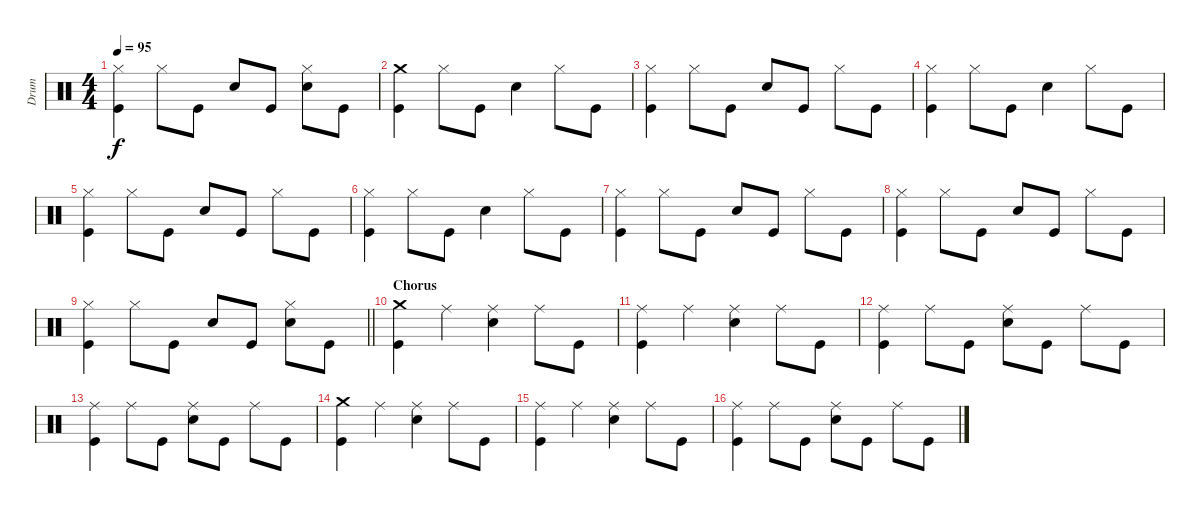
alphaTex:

\track ("Drum" "Drum") {instrument percussion}
\staff {score}
\articulation defaults
\ts (4 4)
\tempo 95
\clef neutral
\ks c
("Hi-Hat (closed)" "Kick (hit)").4{dy f} "Hi-Hat (closed)".8 "Kick (hit)".8 "Electric Snare (hit)".8 "Kick (hit)".8 ("Hi-Hat (closed)" "Electric Snare (hit)").8 "Kick (hit)".8 |
("Crash medium (hit)" "Kick (hit)").4 "Hi-Hat (closed)".8 "Kick (hit)".8 "Electric Snare (hit)".4 "Hi-Hat (closed)".8 "Kick (hit)".8 |
("Hi-Hat (closed)" "Kick (hit)").4 "Hi-Hat (closed)".8 "Kick (hit)".8 "Electric Snare (hit)".8 "Kick (hit)".8 "Hi-Hat (closed)".8 "Kick (hit)".8 |
("Hi-Hat (closed)" "Kick (hit)").4 "Hi-Hat (closed)".8 "Kick (hit)".8 "Electric Snare (hit)".4 "Hi-Hat (closed)".8 "Kick (hit)".8 |
("Hi-Hat (closed)" "Kick (hit)").4 "Hi-Hat (closed)".8 "Kick (hit)".8 "Electric Snare (hit)".8 "Kick (hit)".8 "Hi-Hat (closed)".8 "Kick (hit)".8 |
("Hi-Hat (closed)" "Kick (hit)").4 "Hi-Hat (closed)".8 "Kick (hit)".8 "Electric Snare (hit)".4 "Hi-Hat (closed)".8 "Kick (hit)".8 |
("Hi-Hat (closed)" "Kick (hit)").4 "Hi-Hat (closed)".8 "Kick (hit)".8 "Electric Snare (hit)".8 "Kick (hit)".8 "Hi-Hat (closed)".8 "Kick (hit)".8 |
("Hi-Hat (closed)" "Kick (hit)").4 "Hi-Hat (closed)".8 "Kick (hit)".8 "Electric Snare (hit)".8 "Kick (hit)".8 "Hi-Hat (closed)".8 "Kick (hit)".8 |
\barLineRight lightlight
("Hi-Hat (closed)" "Kick (hit)").4 "Hi-Hat (closed)".8 "Kick (hit)".8 "Electric Snare (hit)".8 "Kick (hit)".8 ("Hi-Hat (closed)" "Electric Snare (hit)").8 "Kick (hit)".8 |
\section ("" "Chorus")
("Crash medium (hit)" "Kick (hit)").4 "Ride (middle)".4 ("Ride (middle)" "Electric Snare (hit)").4 "Ride (middle)".8 "Kick (hit)".8 |
("Ride (middle)" "Kick (hit)").4 "Ride (middle)".4 ("Ride (middle)" "Electric Snare (hit)").4 "Ride (middle)".8 "Kick (hit)".8 |
("Ride (middle)" "Kick (hit)").4 "Ride (middle)".8 "Kick (hit)".8 ("Ride (middle)" "Electric Snare (hit)").8 "Kick (hit)".8 "Ride (middle)".8 "Kick (hit)".8 |
("Ride (middle)" "Kick (hit)").4 "Ride (middle)".8 "Kick (hit)".8 ("Ride (middle)" "Electric Snare (hit)").8 "Kick (hit)".8 "Ride (middle)".8 "Kick (hit)".8 |
("Crash medium (hit)" "Kick (hit)").4 "Ride (middle)".4 ("Ride (middle)" "Electric Snare (hit)").4 "Ride (middle)".8 "Kick (hit)".8 |
("Ride (middle)" "Kick (hit)").4 "Ride (middle)".4 ("Ride (middle)" "Electric Snare (hit)").4 "Ride (middle)".8 "Kick (hit)".8 |
("Ride (middle)" "Kick (hit)").4 "Ride (middle)".8 "Kick (hit)".8 ("Ride (middle)" "Electric Snare (hit)").8 "Kick (hit)".8 "Ride (middle)".8 "Kick (hit)".8
